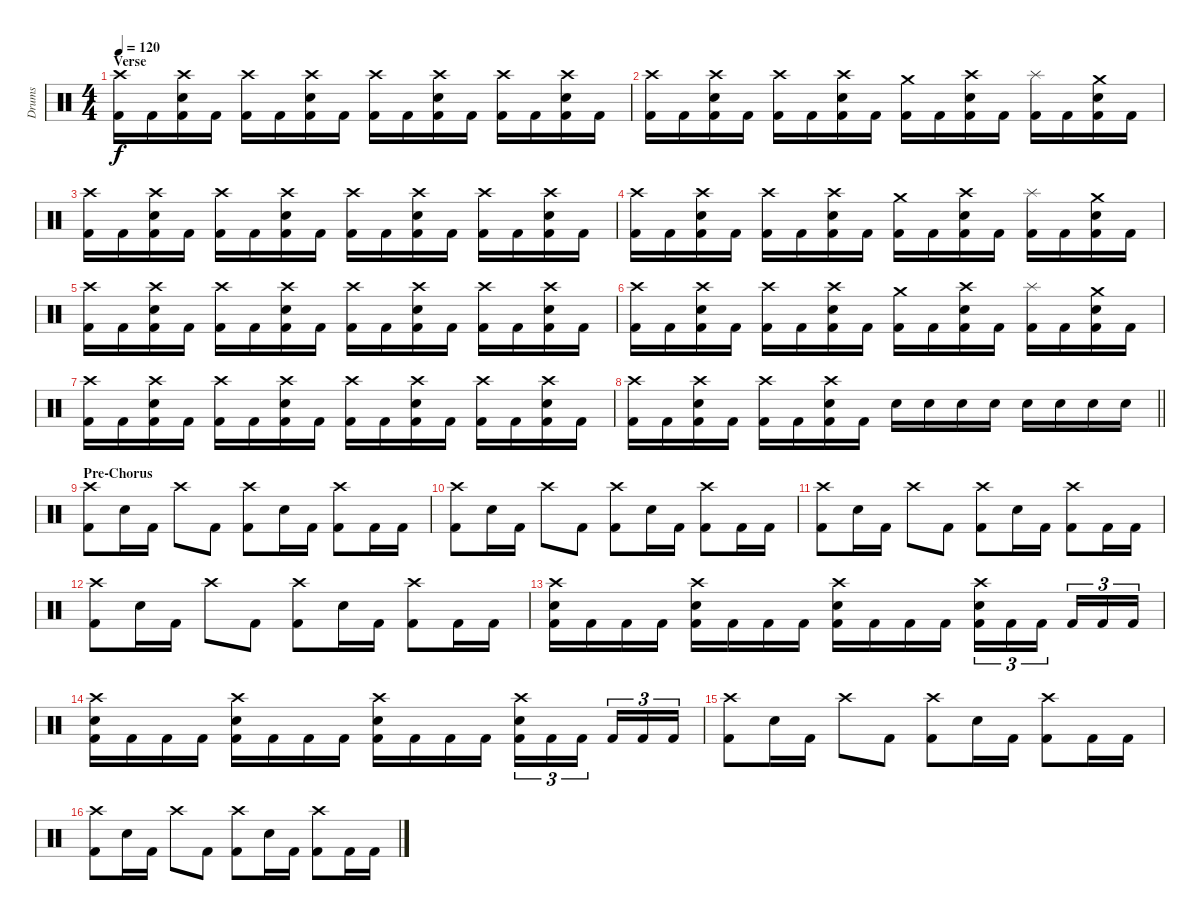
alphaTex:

\track ("Drums" "Drums") {instrument percussion}
\staff {score}
\articulation defaults
\ts (4 4)
\section ("" "Verse")
\tempo 120
\clef neutral
\ks c
("Crash high (hit)" "Kick (hit) 2").16{dy f} "Kick (hit) 2".16 ("Crash high (hit)" "Electric Snare (hit)" "Kick (hit) 2").16 "Kick (hit) 2".16 ("Crash high (hit)" "Kick (hit) 2").16 "Kick (hit) 2".16 ("Crash high (hit)" "Electric Snare (hit)" "Kick (hit) 2").16 "Kick (hit) 2".16 ("Crash high (hit)" "Kick (hit) 2").16 "Kick (hit) 2".16 ("Crash high (hit)" "Electric Snare (hit)" "Kick (hit) 2").16 "Kick (hit) 2".16 ("Crash high (hit)" "Kick (hit) 2").16 "Kick (hit) 2".16 ("Crash high (hit)" "Electric Snare (hit)" "Kick (hit) 2").16 "Kick (hit) 2".16 |
("Crash high (hit)" "Kick (hit) 2").16 "Kick (hit) 2".16 ("Crash high (hit)" "Electric Snare (hit)" "Kick (hit) 2").16 "Kick (hit) 2".16 ("Crash high (hit)" "Kick (hit) 2").16 "Kick (hit) 2".16 ("Crash high (hit)" "Electric Snare (hit)" "Kick (hit) 2").16 "Kick (hit) 2".16 ("Crash medium (hit)" "Kick (hit) 2").16 "Kick (hit) 2".16 ("Crash high (hit)" "Electric Snare (hit)" "Kick (hit) 2").16 "Kick (hit) 2".16 ("Splash (hit)" "Kick (hit) 2").16 "Kick (hit) 2".16 ("Crash medium (hit)" "Electric Snare (hit)" "Kick (hit) 2").16 "Kick (hit) 2".16 |
("Crash high (hit)" "Kick (hit) 2").16 "Kick (hit) 2".16 ("Crash high (hit)" "Electric Snare (hit)" "Kick (hit) 2").16 "Kick (hit) 2".16 ("Crash high (hit)" "Kick (hit) 2").16 "Kick (hit) 2".16 ("Crash high (hit)" "Electric Snare (hit)" "Kick (hit) 2").16 "Kick (hit) 2".16 ("Crash high (hit)" "Kick (hit) 2").16 "Kick (hit) 2".16 ("Crash high (hit)" "Electric Snare (hit)" "Kick (hit) 2").16 "Kick (hit) 2".16 ("Crash high (hit)" "Kick (hit) 2").16 "Kick (hit) 2".16 ("Crash high (hit)" "Electric Snare (hit)" "Kick (hit) 2").16 "Kick (hit) 2".16 |
("Crash high (hit)" "Kick (hit) 2").16 "Kick (hit) 2".16 ("Crash high (hit)" "Electric Snare (hit)" "Kick (hit) 2").16 "Kick (hit) 2".16 ("Crash high (hit)" "Kick (hit) 2").16 "Kick (hit) 2".16 ("Crash high (hit)" "Electric Snare (hit)" "Kick (hit) 2").16 "Kick (hit) 2".16 ("Crash medium (hit)" "Kick (hit) 2").16 "Kick (hit) 2".16 ("Crash high (hit)" "Electric Snare (hit)" "Kick (hit) 2").16 "Kick (hit) 2".16 ("Splash (hit)" "Kick (hit) 2").16 "Kick (hit) 2".16 ("Crash medium (hit)" "Electric Snare (hit)" "Kick (hit) 2").16 "Kick (hit) 2".16 |
("Crash high (hit)" "Kick (hit) 2").16 "Kick (hit) 2".16 ("Crash high (hit)" "Electric Snare (hit)" "Kick (hit) 2").16 "Kick (hit) 2".16 ("Crash high (hit)" "Kick (hit) 2").16 "Kick (hit) 2".16 ("Crash high (hit)" "Electric Snare (hit)" "Kick (hit) 2").16 "Kick (hit) 2".16 ("Crash high (hit)" "Kick (hit) 2").16 "Kick (hit) 2".16 ("Crash high (hit)" "Electric Snare (hit)" "Kick (hit) 2").16 "Kick (hit) 2".16 ("Crash high (hit)" "Kick (hit) 2").16 "Kick (hit) 2".16 ("Crash high (hit)" "Electric Snare (hit)" "Kick (hit) 2").16 "Kick (hit) 2".16 |
("Crash high (hit)" "Kick (hit) 2").16 "Kick (hit) 2".16 ("Crash high (hit)" "Electric Snare (hit)" "Kick (hit) 2").16 "Kick (hit) 2".16 ("Crash high (hit)" "Kick (hit) 2").16 "Kick (hit) 2".16 ("Crash high (hit)" "Electric Snare (hit)" "Kick (hit) 2").16 "Kick (hit) 2".16 ("Crash medium (hit)" "Kick (hit) 2").16 "Kick (hit) 2".16 ("Crash high (hit)" "Electric Snare (hit)" "Kick (hit) 2").16 "Kick (hit) 2".16 ("Splash (hit)" "Kick (hit) 2").16 "Kick (hit) 2".16 ("Crash medium (hit)" "Electric Snare (hit)" "Kick (hit) 2").16 "Kick (hit) 2".16 |
("Crash high (hit)" "Kick (hit) 2").16 "Kick (hit) 2".16 ("Crash high (hit)" "Electric Snare (hit)" "Kick (hit) 2").16 "Kick (hit) 2".16 ("Crash high (hit)" "Kick (hit) 2").16 "Kick (hit) 2".16 ("Crash high (hit)" "Electric Snare (hit)" "Kick (hit) 2").16 "Kick (hit) 2".16 ("Crash high (hit)" "Kick (hit) 2").16 "Kick (hit) 2".16 ("Crash high (hit)" "Electric Snare (hit)" "Kick (hit) 2").16 "Kick (hit) 2".16 ("Crash high (hit)" "Kick (hit) 2").16 "Kick (hit) 2".16 ("Crash high (hit)" "Electric Snare (hit)" "Kick (hit) 2").16 "Kick (hit) 2".16 |
\barLineRight lightlight
("Crash high (hit)" "Kick (hit) 2").16 "Kick (hit) 2".16 ("Crash high (hit)" "Electric Snare (hit)" "Kick (hit) 2").16 "Kick (hit) 2".16 ("Crash high (hit)" "Kick (hit) 2").16 "Kick (hit) 2".16 ("Crash high (hit)" "Electric Snare (hit)" "Kick (hit) 2").16 "Kick (hit) 2".16 "Electric Snare (hit)".16 "Electric Snare (hit)".16 "Electric Snare (hit)".16 "Electric Snare (hit)".16 "Electric Snare (hit)".16 "Electric Snare (hit)".16 "Electric Snare (hit)".16 "Electric Snare (hit)".16 |
\section ("" "Pre-Chorus")
("Crash high (hit)" "Kick (hit) 2").8 "Electric Snare (hit)".16 "Kick (hit) 2".16 "Crash high (hit)".8 "Kick (hit) 2".8 ("Crash high (hit)" "Kick (hit) 2").8 "Electric Snare (hit)".16 "Kick (hit) 2".16 ("Crash high (hit)" "Kick (hit) 2").8 "Kick (hit) 2".16 "Kick (hit) 2".16 |
("Crash high (hit)" "Kick (hit) 2").8 "Electric Snare (hit)".16 "Kick (hit) 2".16 "Crash high (hit)".8 "Kick (hit) 2".8 ("Crash high (hit)" "Kick (hit) 2").8 "Electric Snare (hit)".16 "Kick (hit) 2".16 ("Crash high (hit)" "Kick (hit) 2").8 "Kick (hit) 2".16 "Kick (hit) 2".16 |
("Crash high (hit)" "Kick (hit) 2").8 "Electric Snare (hit)".16 "Kick (hit) 2".16 "Crash high (hit)".8 "Kick (hit) 2".8 ("Crash high (hit)" "Kick (hit) 2").8 "Electric Snare (hit)".16 "Kick (hit) 2".16 ("Crash high (hit)" "Kick (hit) 2").8 "Kick (hit) 2".16 "Kick (hit) 2".16 |
("Crash high (hit)" "Kick (hit) 2").8 "Electric Snare (hit)".16 "Kick (hit) 2".16 "Crash high (hit)".8 "Kick (hit) 2".8 ("Crash high (hit)" "Kick (hit) 2").8 "Electric Snare (hit)".16 "Kick (hit) 2".16 ("Crash high (hit)" "Kick (hit) 2").8 "Kick (hit) 2".16 "Kick (hit) 2".16 |
("Crash high (hit)" "Electric Snare (hit)" "Kick (hit) 2").16 "Kick (hit) 2".16 "Kick (hit) 2".16 "Kick (hit) 2".16 ("Crash high (hit)" "Electric Snare (hit)" "Kick (hit) 2").16 "Kick (hit) 2".16 "Kick (hit) 2".16 "Kick (hit) 2".16 ("Crash high (hit)" "Electric Snare (hit)" "Kick (hit) 2").16 "Kick (hit) 2".16 "Kick (hit) 2".16 "Kick (hit) 2".16 ("Crash high (hit)" "Electric Snare (hit)" "Kick (hit) 2").16{tu (3 2)} "Kick (hit) 2".16{tu (3 2)} "Kick (hit) 2".16{tu (3 2)} "Kick (hit) 2".16{tu (3 2)} "Kick (hit) 2".16{tu (3 2)} "Kick (hit) 2".16{tu (3 2)} |
("Crash high (hit)" "Electric Snare (hit)" "Kick (hit) 2").16 "Kick (hit) 2".16 "Kick (hit) 2".16 "Kick (hit) 2".16 ("Crash high (hit)" "Electric Snare (hit)" "Kick (hit) 2").16 "Kick (hit) 2".16 "Kick (hit) 2".16 "Kick (hit) 2".16 ("Crash high (hit)" "Electric Snare (hit)" "Kick (hit) 2").16 "Kick (hit) 2".16 "Kick (hit) 2".16 "Kick (hit) 2".16 ("Crash high (hit)" "Electric Snare (hit)" "Kick (hit) 2").16{tu (3 2)} "Kick (hit) 2".16{tu (3 2)} "Kick (hit) 2".16{tu (3 2)} "Kick (hit) 2".16{tu (3 2)} "Kick (hit) 2".16{tu (3 2)} "Kick (hit) 2".16{tu (3 2)} |
("Crash high (hit)" "Kick (hit) 2").8 "Electric Snare (hit)".16 "Kick (hit) 2".16 "Crash high (hit)".8 "Kick (hit) 2".8 ("Crash high (hit)" "Kick (hit) 2").8 "Electric Snare (hit)".16 "Kick (hit) 2".16 ("Crash high (hit)" "Kick (hit) 2").8 "Kick (hit) 2".16 "Kick (hit) 2".16 |
("Crash high (hit)" "Kick (hit) 2").8 "Electric Snare (hit)".16 "Kick (hit) 2".16 "Crash high (hit)".8 "Kick (hit) 2".8 ("Crash high (hit)" "Kick (hit) 2").8 "Electric Snare (hit)".16 "Kick (hit) 2".16 ("Crash high (hit)" "Kick (hit) 2").8 "Kick (hit) 2".16 "Kick (hit) 2".16
